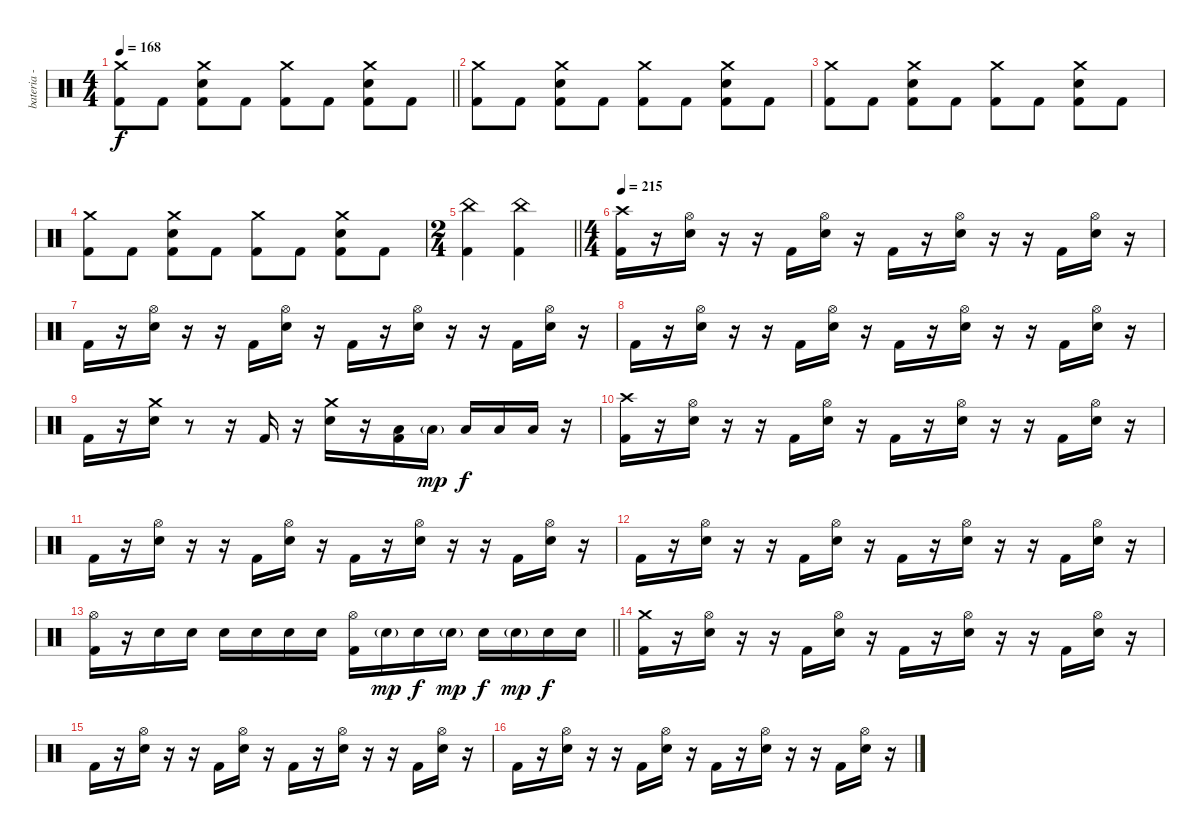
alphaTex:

\track ("bateria - drums" "bateria - ") {instrument percussion}
\staff {score}
\articulation defaults
\ts (4 4)
\tempo 168
\clef neutral
\barLineRight lightlight
\ks c
("Crash medium (hit)" "Kick (hit) 2").8{dy f} "Kick (hit) 2".8 ("Crash medium (hit)" "Electric Snare (hit)" "Kick (hit) 2").8 "Kick (hit) 2".8 ("Crash medium (hit)" "Kick (hit) 2").8 "Kick (hit) 2".8 ("Crash medium (hit)" "Electric Snare (hit)" "Kick (hit) 2").8 "Kick (hit) 2".8 |
("Crash medium (hit)" "Kick (hit) 2").8 "Kick (hit) 2".8 ("Crash medium (hit)" "Electric Snare (hit)" "Kick (hit) 2").8 "Kick (hit) 2".8 ("Crash medium (hit)" "Kick (hit) 2").8 "Kick (hit) 2".8 ("Crash medium (hit)" "Electric Snare (hit)" "Kick (hit) 2").8 "Kick (hit) 2".8 |
("Crash medium (hit)" "Kick (hit) 2").8 "Kick (hit) 2".8 ("Crash medium (hit)" "Electric Snare (hit)" "Kick (hit) 2").8 "Kick (hit) 2".8 ("Crash medium (hit)" "Kick (hit) 2").8 "Kick (hit) 2".8 ("Crash medium (hit)" "Electric Snare (hit)" "Kick (hit) 2").8 "Kick (hit) 2".8 |
("Crash medium (hit)" "Kick (hit) 2").8 "Kick (hit) 2".8 ("Crash medium (hit)" "Electric Snare (hit)" "Kick (hit) 2").8 "Kick (hit) 2".8 ("Crash medium (hit)" "Kick (hit) 2").8 "Kick (hit) 2".8 ("Crash medium (hit)" "Electric Snare (hit)" "Kick (hit) 2").8 "Kick (hit) 2".8 |
\ts (2 4)
\barLineRight lightlight
("China (hit)" "Kick (hit) 2").4 ("China (hit)" "Kick (hit) 2").4 |
\ts (4 4)
\tempo 215
("Crash high (hit)" "Kick (hit) 2").16 r.16 ("Hi-Hat (open)" "Electric Snare (hit)").16 r.16 r.16 "Kick (hit) 2".16 ("Hi-Hat (open)" "Electric Snare (hit)").16 r.16 "Kick (hit) 2".16 r.16 ("Hi-Hat (open)" "Electric Snare (hit)").16 r.16 r.16 "Kick (hit) 2".16 ("Hi-Hat (open)" "Electric Snare (hit)").16 r.16 |
"Kick (hit) 2".16 r.16 ("Hi-Hat (open)" "Electric Snare (hit)").16 r.16 r.16 "Kick (hit) 2".16 ("Hi-Hat (open)" "Electric Snare (hit)").16 r.16 "Kick (hit) 2".16 r.16 ("Hi-Hat (open)" "Electric Snare (hit)").16 r.16 r.16 "Kick (hit) 2".16 ("Hi-Hat (open)" "Electric Snare (hit)").16 r.16 |
"Kick (hit) 2".16 r.16 ("Hi-Hat (open)" "Electric Snare (hit)").16 r.16 r.16 "Kick (hit) 2".16 ("Hi-Hat (open)" "Electric Snare (hit)").16 r.16 "Kick (hit) 2".16 r.16 ("Hi-Hat (open)" "Electric Snare (hit)").16 r.16 r.16 "Kick (hit) 2".16 ("Hi-Hat (open)" "Electric Snare (hit)").16 r.16 |
"Kick (hit) 2".16 r.16 ("Crash medium (hit)" "Electric Snare (hit)").16 r.8 r.16 "Kick (hit) 2".16 r.16 ("Crash medium (hit)" "Electric Snare (hit)").16 r.16 ("Low Floor Tom (hit)" "Kick (hit) 2").16 "Low Floor Tom (hit)"{g}.16{dy mp} "Low Floor Tom (hit)".16{dy f} "Low Floor Tom (hit)".16 "Low Floor Tom (hit)".16 r.16 |
("Crash high (hit)" "Kick (hit) 2").16 r.16 ("Hi-Hat (open)" "Electric Snare (hit)").16 r.16 r.16 "Kick (hit) 2".16 ("Hi-Hat (open)" "Electric Snare (hit)").16 r.16 "Kick (hit) 2".16 r.16 ("Hi-Hat (open)" "Electric Snare (hit)").16 r.16 r.16 "Kick (hit) 2".16 ("Hi-Hat (open)" "Electric Snare (hit)").16 r.16 |
"Kick (hit) 2".16 r.16 ("Hi-Hat (open)" "Electric Snare (hit)").16 r.16 r.16 "Kick (hit) 2".16 ("Hi-Hat (open)" "Electric Snare (hit)").16 r.16 "Kick (hit) 2".16 r.16 ("Hi-Hat (open)" "Electric Snare (hit)").16 r.16 r.16 "Kick (hit) 2".16 ("Hi-Hat (open)" "Electric Snare (hit)").16 r.16 |
"Kick (hit) 2".16 r.16 ("Hi-Hat (open)" "Electric Snare (hit)").16 r.16 r.16 "Kick (hit) 2".16 ("Hi-Hat (open)" "Electric Snare (hit)").16 r.16 "Kick (hit) 2".16 r.16 ("Hi-Hat (open)" "Electric Snare (hit)").16 r.16 r.16 "Kick (hit) 2".16 ("Hi-Hat (open)" "Electric Snare (hit)").16 r.16 |
\barLineRight lightlight
("Hi-Hat (open)" "Kick (hit) 2").16 r.16 "Electric Snare (hit)".16 "Electric Snare (hit)".16 "Electric Snare (hit)".16 "Electric Snare (hit)".16 "Electric Snare (hit)".16 "Electric Snare (hit)".16 ("Hi-Hat (open)" "Kick (hit) 2").16 "Electric Snare (hit)"{g}.16{dy mp} "Electric Snare (hit)".16{dy f} "Electric Snare (hit)"{g}.16{dy mp} "Electric Snare (hit)".16{dy f} "Electric Snare (hit)"{g}.16{dy mp} "Electric Snare (hit)".16{dy f} "Electric Snare (hit)".16 |
("Crash medium (hit)" "Kick (hit) 2").16 r.16 ("Hi-Hat (open)" "Electric Snare (hit)").16 r.16 r.16 "Kick (hit) 2".16 ("Hi-Hat (open)" "Electric Snare (hit)").16 r.16 "Kick (hit) 2".16 r.16 ("Hi-Hat (open)" "Electric Snare (hit)").16 r.16 r.16 "Kick (hit) 2".16 ("Hi-Hat (open)" "Electric Snare (hit)").16 r.16 |
"Kick (hit) 2".16 r.16 ("Hi-Hat (open)" "Electric Snare (hit)").16 r.16 r.16 "Kick (hit) 2".16 ("Hi-Hat (open)" "Electric Snare (hit)").16 r.16 "Kick (hit) 2".16 r.16 ("Hi-Hat (open)" "Electric Snare (hit)").16 r.16 r.16 "Kick (hit) 2".16 ("Hi-Hat (open)" "Electric Snare (hit)").16 r.16 |
"Kick (hit) 2".16 r.16 ("Hi-Hat (open)" "Electric Snare (hit)").16 r.16 r.16 "Kick (hit) 2".16 ("Hi-Hat (open)" "Electric Snare (hit)").16 r.16 "Kick (hit) 2".16 r.16 ("Hi-Hat (open)" "Electric Snare (hit)").16 r.16 r.16 "Kick (hit) 2".16 ("Hi-Hat (open)" "Electric Snare (hit)").16 r.16
